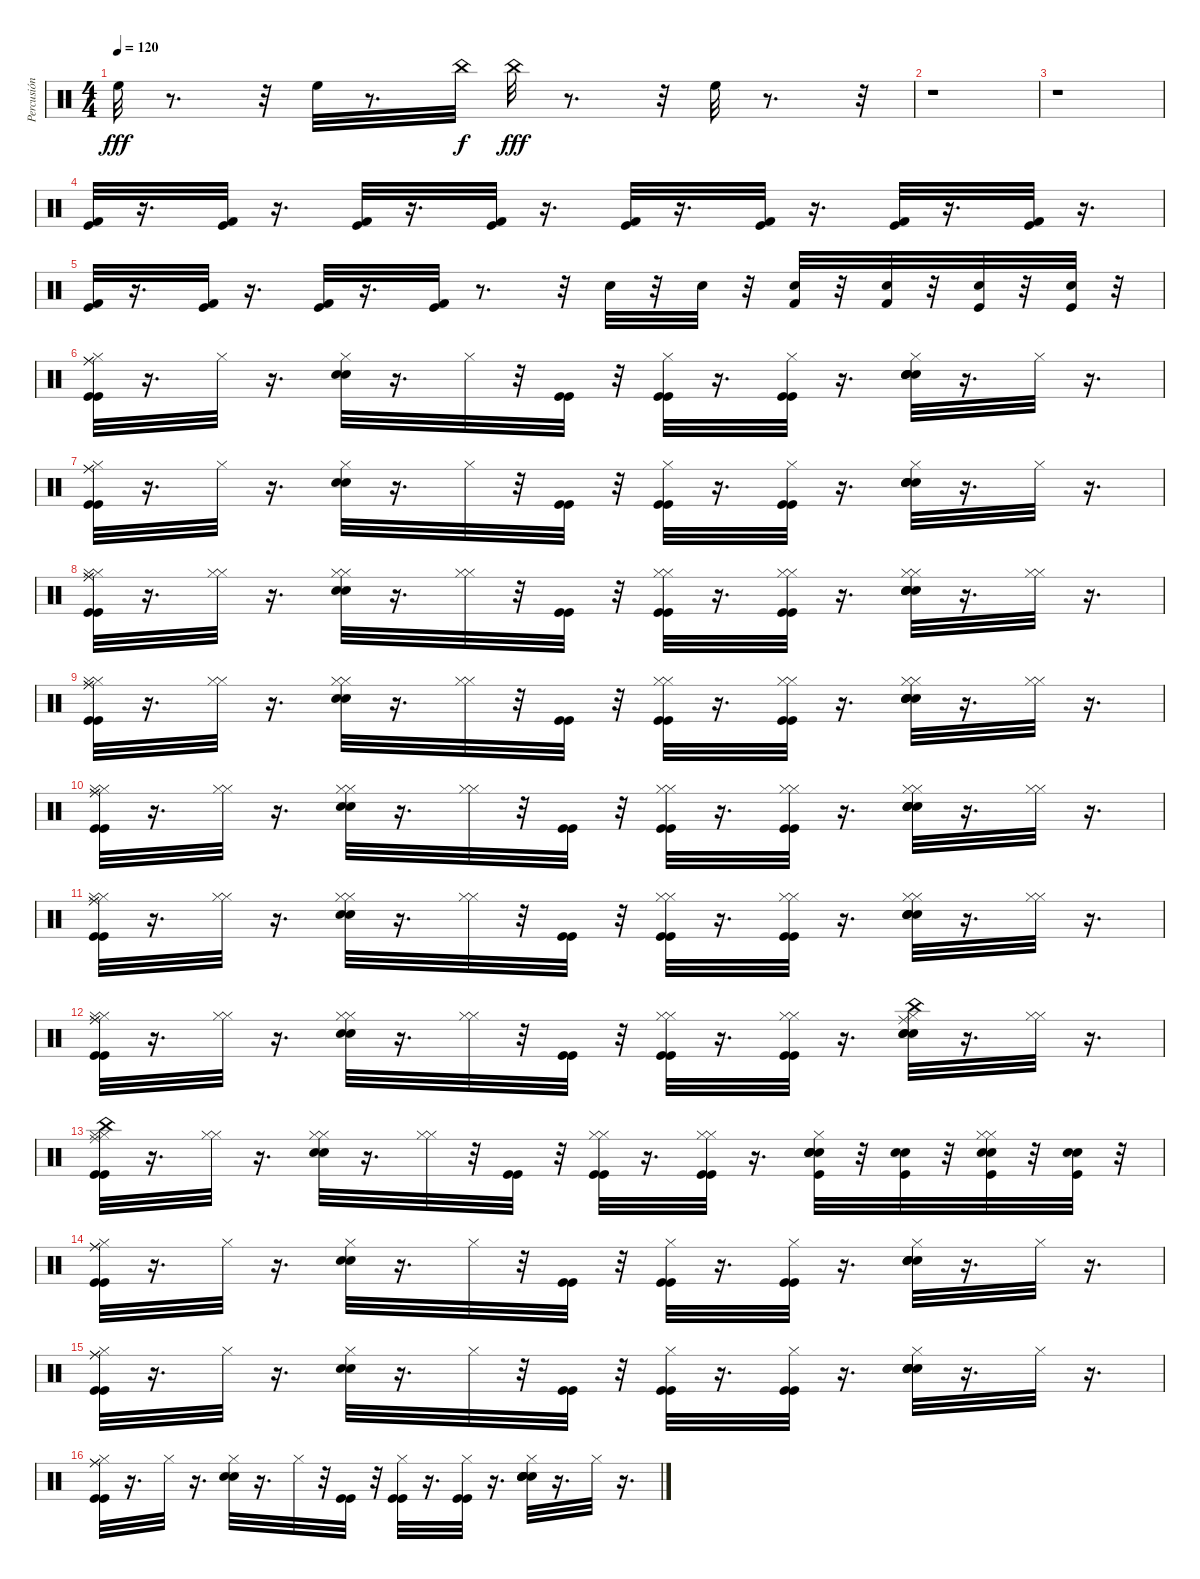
\track ("Percusión" "Percusión") {instrument percussion}
\staff {score}
\articulation defaults
\ts (4 4)
\tempo 120
\clef neutral
\ks c "High Floor Tom (hit)".32{dy fff}
r.8{d} r.32 "High Floor Tom (hit)".32 r.8{d} "China (hit)".32{dy f} "China (hit)".32{dy fff} r.8{d} r.32 "High Floor Tom (hit)".32 r.8{d} r.32 |
r.1 |
r.1 |
("Kick (hit) 2" "Kick (hit)").32{volume 0} r.16{d} ("Kick (hit) 2" "Kick (hit)").32{volume 0} r.16{d} ("Kick (hit) 2" "Kick (hit)").32{volume 2} r.16{d} ("Kick (hit) 2" "Kick (hit)").32{volume 3} r.16{d} ("Kick (hit) 2" "Kick (hit)").32{volume 5} r.16{d} ("Kick (hit) 2" "Kick (hit)").32{volume 6} r.16{d} ("Kick (hit) 2" "Kick (hit)").32{volume 8} r.16{d} ("Kick (hit) 2" "Kick (hit)").32{volume 9} r.16{d} |
("Kick (hit) 2" "Kick (hit)").32{volume 10} r.16{d} ("Kick (hit) 2" "Kick (hit)").32{volume 12} r.16{d} ("Kick (hit) 2" "Kick (hit)").32{volume 13} r.16{d} ("Kick (hit) 2" "Kick (hit)").32{volume 15} r.8{d} r.32 "Electric Snare (hit)".32{volume 16} r.32 "Electric Snare (hit)".32 r.32 ("Kick (hit) 2" "Electric Snare (hit)").32 r.32 ("Kick (hit) 2" "Electric Snare (hit)").32 r.32 ("Snare (hit) 2" "Kick (hit)").32 r.32 ("Snare (hit) 2" "Kick (hit)").32 r.32 |
("Hi-Hat (closed)" "Kick (hit)" "Ride (middle)" "Kick (hit)" "Ride (middle)").32 r.16{d} "Hi-Hat (closed)".32 r.16{d} ("Snare (hit) 2" "Electric Snare (hit)" "Hi-Hat (closed)").32 r.16{d} "Hi-Hat (closed)".32 r.32 ("Kick (hit)" "Kick (hit)").32 r.32 ("Hi-Hat (closed)" "Kick (hit)" "Kick (hit)").32 r.16{d} ("Hi-Hat (closed)" "Kick (hit)" "Kick (hit)").32 r.16{d} ("Hi-Hat (closed)" "Snare (hit) 2" "Electric Snare (hit)" "Snare (hit) 2" "Electric Snare (hit)").32 r.16{d} "Hi-Hat (closed)".32 r.16{d} |
("Hi-Hat (closed)" "Kick (hit)" "Ride (middle)" "Kick (hit)" "Ride (middle)").32 r.16{d} "Hi-Hat (closed)".32 r.16{d} ("Snare (hit) 2" "Electric Snare (hit)" "Hi-Hat (closed)").32 r.16{d} "Hi-Hat (closed)".32 r.32 ("Kick (hit)" "Kick (hit)").32 r.32 ("Hi-Hat (closed)" "Kick (hit)" "Kick (hit)").32 r.16{d} ("Hi-Hat (closed)" "Kick (hit)" "Kick (hit)").32 r.16{d} ("Hi-Hat (closed)" "Snare (hit) 2" "Electric Snare (hit)" "Snare (hit) 2" "Electric Snare (hit)").32 r.16{d} "Hi-Hat (closed)".32 r.16{d} |
("Kick (hit)" "Hi-Hat (closed)" "Ride (middle)" "Kick (hit)" "Hi-Hat (closed)" "Ride (middle)").32 r.16{d} ("Hi-Hat (closed)" "Hi-Hat (closed)").32 r.16{d} ("Snare (hit) 2" "Electric Snare (hit)" "Hi-Hat (closed)" "Hi-Hat (closed)").32 r.16{d} ("Hi-Hat (closed)" "Hi-Hat (closed)").32 r.32 ("Kick (hit)" "Kick (hit)").32 r.32 ("Kick (hit)" "Hi-Hat (closed)" "Kick (hit)" "Hi-Hat (closed)").32 r.16{d} ("Kick (hit)" "Hi-Hat (closed)" "Kick (hit)" "Hi-Hat (closed)").32 r.16{d} ("Snare (hit) 2" "Electric Snare (hit)" "Hi-Hat (closed)" "Snare (hit) 2" "Electric Snare (hit)" "Hi-Hat (closed)").32 r.16{d} ("Hi-Hat (closed)" "Hi-Hat (closed)").32 r.16{d} |
("Kick (hit)" "Hi-Hat (closed)" "Ride (middle)" "Kick (hit)" "Hi-Hat (closed)" "Ride (middle)").32 r.16{d} ("Hi-Hat (closed)" "Hi-Hat (closed)").32 r.16{d} ("Snare (hit) 2" "Electric Snare (hit)" "Hi-Hat (closed)" "Hi-Hat (closed)").32 r.16{d} ("Hi-Hat (closed)" "Hi-Hat (closed)").32 r.32 ("Kick (hit)" "Kick (hit)").32 r.32 ("Kick (hit)" "Hi-Hat (closed)" "Kick (hit)" "Hi-Hat (closed)").32 r.16{d} ("Kick (hit)" "Hi-Hat (closed)" "Kick (hit)" "Hi-Hat (closed)").32 r.16{d} ("Snare (hit) 2" "Electric Snare (hit)" "Hi-Hat (closed)" "Snare (hit) 2" "Electric Snare (hit)" "Hi-Hat (closed)").32 r.16{d} ("Hi-Hat (closed)" "Hi-Hat (closed)").32 r.16{d} |
("Kick (hit)" "Hi-Hat (closed)" "Ride (middle)" "Kick (hit)" "Hi-Hat (closed)" "Ride (middle)").32 r.16{d} ("Hi-Hat (closed)" "Hi-Hat (closed)").32 r.16{d} ("Snare (hit) 2" "Electric Snare (hit)" "Hi-Hat (closed)" "Hi-Hat (closed)").32 r.16{d} ("Hi-Hat (closed)" "Hi-Hat (closed)").32 r.32 ("Kick (hit)" "Kick (hit)").32 r.32 ("Kick (hit)" "Hi-Hat (closed)" "Kick (hit)" "Hi-Hat (closed)").32 r.16{d} ("Kick (hit)" "Hi-Hat (closed)" "Kick (hit)" "Hi-Hat (closed)").32 r.16{d} ("Snare (hit) 2" "Electric Snare (hit)" "Hi-Hat (closed)" "Snare (hit) 2" "Electric Snare (hit)" "Hi-Hat (closed)").32 r.16{d} ("Hi-Hat (closed)" "Hi-Hat (closed)").32 r.16{d} |
("Kick (hit)" "Hi-Hat (closed)" "Ride (middle)" "Kick (hit)" "Hi-Hat (closed)" "Ride (middle)").32 r.16{d} ("Hi-Hat (closed)" "Hi-Hat (closed)").32 r.16{d} ("Snare (hit) 2" "Electric Snare (hit)" "Hi-Hat (closed)" "Hi-Hat (closed)").32 r.16{d} ("Hi-Hat (closed)" "Hi-Hat (closed)").32 r.32 ("Kick (hit)" "Kick (hit)").32 r.32 ("Kick (hit)" "Hi-Hat (closed)" "Kick (hit)" "Hi-Hat (closed)").32 r.16{d} ("Kick (hit)" "Hi-Hat (closed)" "Kick (hit)" "Hi-Hat (closed)").32 r.16{d} ("Snare (hit) 2" "Electric Snare (hit)" "Hi-Hat (closed)" "Snare (hit) 2" "Electric Snare (hit)" "Hi-Hat (closed)").32 r.16{d} ("Hi-Hat (closed)" "Hi-Hat (closed)").32 r.16{d} |
("Kick (hit)" "Hi-Hat (closed)" "Ride (middle)" "Kick (hit)" "Hi-Hat (closed)" "Ride (middle)").32 r.16{d} ("Hi-Hat (closed)" "Hi-Hat (closed)").32 r.16{d} ("Electric Snare (hit)" "Snare (hit) 2" "Hi-Hat (closed)" "Hi-Hat (closed)").32 r.16{d} ("Hi-Hat (closed)" "Hi-Hat (closed)").32 r.32 ("Kick (hit)" "Kick (hit)").32 r.32 ("Kick (hit)" "Hi-Hat (closed)" "Kick (hit)" "Hi-Hat (closed)").32 r.16{d} ("Kick (hit)" "Hi-Hat (closed)" "Kick (hit)" "Hi-Hat (closed)").32 r.16{d} ("Ride (middle)" "China (hit)" "Snare (hit) 2" "Electric Snare (hit)" "Hi-Hat (closed)" "Snare (hit) 2").32 r.16{d} ("Hi-Hat (closed)" "Hi-Hat (closed)").32 r.16{d} |
("China (hit)" "Kick (hit)" "Hi-Hat (closed)" "Ride (middle)" "Kick (hit)" "Hi-Hat (closed)").32 r.16{d} ("Hi-Hat (closed)" "Hi-Hat (closed)").32 r.16{d} ("Snare (hit) 2" "Electric Snare (hit)" "Hi-Hat (closed)" "Hi-Hat (closed)").32 r.16{d} ("Hi-Hat (closed)" "Hi-Hat (closed)").32 r.32 ("Kick (hit)" "Kick (hit)").32 r.32 ("Kick (hit)" "Hi-Hat (closed)" "Kick (hit)" "Hi-Hat (closed)").32 r.16{d} ("Kick (hit)" "Hi-Hat (closed)" "Kick (hit)" "Hi-Hat (closed)").32 r.16{d} ("Kick (hit)" "Snare (hit) 2" "Electric Snare (hit)" "Hi-Hat (closed)" "Snare (hit) 2" "Electric Snare (hit)").32 r.32 ("Electric Snare (hit)" "Snare (hit) 2" "Kick (hit)").32 r.32 ("Snare (hit) 2" "Electric Snare (hit)" "Kick (hit)" "Hi-Hat (closed)" "Hi-Hat (closed)").32 r.32 ("Electric Snare (hit)" "Snare (hit) 2" "Kick (hit)").32 r.32 |
("Hi-Hat (closed)" "Kick (hit)" "Ride (middle)" "Kick (hit)" "Ride (middle)").32 r.16{d} "Hi-Hat (closed)".32 r.16{d} ("Snare (hit) 2" "Electric Snare (hit)" "Hi-Hat (closed)").32 r.16{d} "Hi-Hat (closed)".32 r.32 ("Kick (hit)" "Kick (hit)").32 r.32 ("Hi-Hat (closed)" "Kick (hit)" "Kick (hit)").32 r.16{d} ("Hi-Hat (closed)" "Kick (hit)" "Kick (hit)").32 r.16{d} ("Hi-Hat (closed)" "Snare (hit) 2" "Electric Snare (hit)" "Snare (hit) 2" "Electric Snare (hit)").32 r.16{d} "Hi-Hat (closed)".32 r.16{d} |
("Hi-Hat (closed)" "Kick (hit)" "Ride (middle)" "Kick (hit)" "Ride (middle)").32 r.16{d} "Hi-Hat (closed)".32 r.16{d} ("Snare (hit) 2" "Electric Snare (hit)" "Hi-Hat (closed)").32 r.16{d} "Hi-Hat (closed)".32 r.32 ("Kick (hit)" "Kick (hit)").32 r.32 ("Hi-Hat (closed)" "Kick (hit)" "Kick (hit)").32 r.16{d} ("Hi-Hat (closed)" "Kick (hit)" "Kick (hit)").32 r.16{d} ("Hi-Hat (closed)" "Snare (hit) 2" "Electric Snare (hit)" "Snare (hit) 2" "Electric Snare (hit)").32 r.16{d} "Hi-Hat (closed)".32 r.16{d} |
("Hi-Hat (closed)" "Kick (hit)" "Ride (middle)" "Kick (hit)" "Ride (middle)").32 r.16{d} "Hi-Hat (closed)".32 r.16{d} ("Snare (hit) 2" "Electric Snare (hit)" "Hi-Hat (closed)").32 r.16{d} "Hi-Hat (closed)".32 r.32 ("Kick (hit)" "Kick (hit)").32 r.32 ("Hi-Hat (closed)" "Kick (hit)" "Kick (hit)").32 r.16{d} ("Hi-Hat (closed)" "Kick (hit)" "Kick (hit)").32 r.16{d} ("Hi-Hat (closed)" "Snare (hit) 2" "Electric Snare (hit)" "Snare (hit) 2" "Electric Snare (hit)").32 r.16{d} "Hi-Hat (closed)".32 r.16{d}
